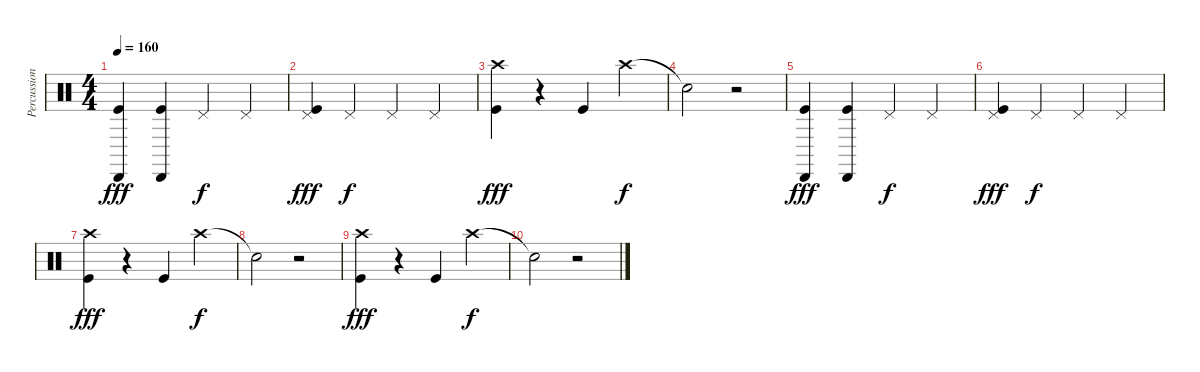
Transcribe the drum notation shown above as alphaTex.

\track ("Percussion" "Percussion") {solo instrument percussion}
\staff {score}
\articulation defaults
\ts (4 4)
\tempo 160
\clef neutral
\ks c
("Kick (hit)" "Cabasa (hit)").4{dy fff} ("Kick (hit)" "Cabasa (hit)").4 "Pedal Hi-Hat (hit)".4{dy f} "Pedal Hi-Hat (hit)".4 |
("Pedal Hi-Hat (hit)" "Kick (hit)").4{dy fff} "Pedal Hi-Hat (hit)".4{dy f} "Pedal Hi-Hat (hit)".4 "Pedal Hi-Hat (hit)".4 |
("Crash high (hit)" "Kick (hit)").4{dy fff} r.4 "Kick (hit)".4 "Crash high (hit)".4{dy f} |
"Snare (hit)"{t}.2 r.2 |
("Kick (hit)" "Cabasa (hit)").4{dy fff} ("Kick (hit)" "Cabasa (hit)").4 "Pedal Hi-Hat (hit)".4{dy f} "Pedal Hi-Hat (hit)".4 |
("Pedal Hi-Hat (hit)" "Kick (hit)").4{dy fff} "Pedal Hi-Hat (hit)".4{dy f} "Pedal Hi-Hat (hit)".4 "Pedal Hi-Hat (hit)".4 |
("Crash high (hit)" "Kick (hit)").4{dy fff} r.4 "Kick (hit)".4 "Crash high (hit)".4{dy f} |
"Snare (hit)"{t}.2 r.2 |
("Crash high (hit)" "Kick (hit)").4{dy fff} r.4 "Kick (hit)".4 "Crash high (hit)".4{dy f} |
"Snare (hit)"{t}.2 r.2
